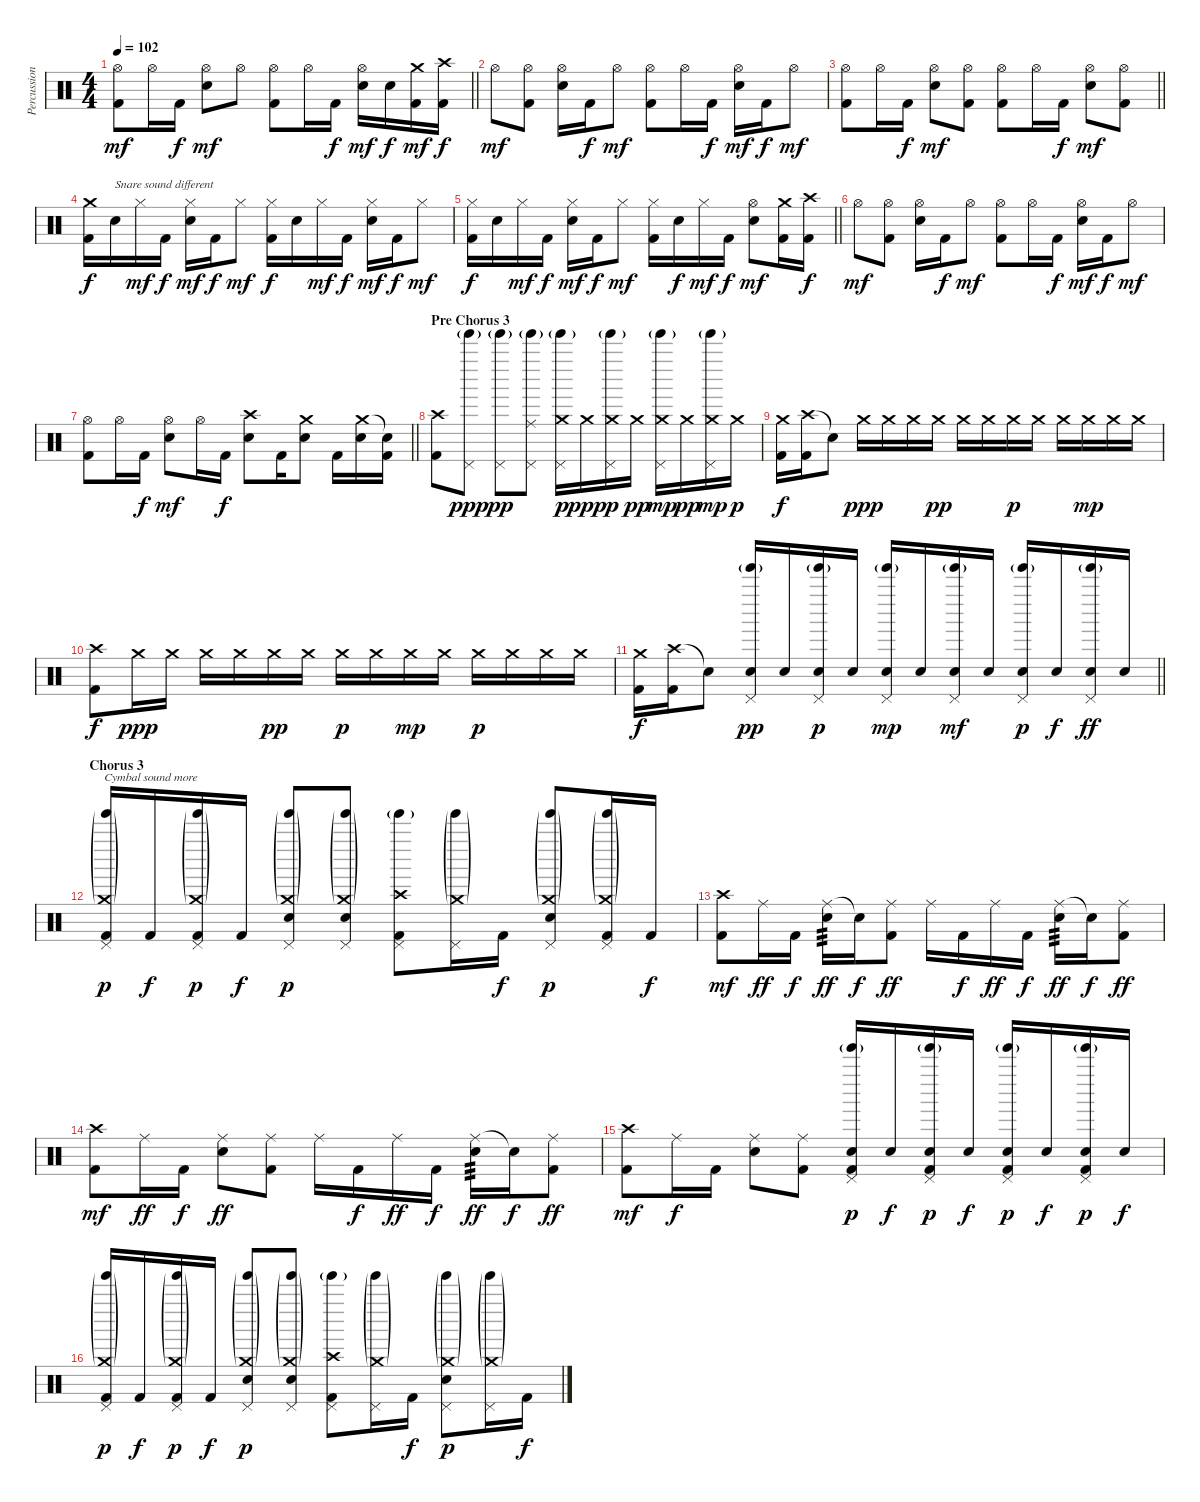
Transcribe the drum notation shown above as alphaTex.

\track ("Percussions" "Percussion") {instrument percussion}
\staff {score}
\articulation defaults
\ts (4 4)
\tempo 102
\clef neutral
\barLineRight lightlight
\ks c
("Hi-Hat (open)" "Kick (hit) 2").8{dy mf} "Hi-Hat (open)".16 "Kick (hit) 2".16{dy f} ("Hi-Hat (open)" "Electric Snare (hit)").8{dy mf} "Hi-Hat (open)".8 ("Hi-Hat (open)" "Kick (hit) 2").8 "Hi-Hat (open)".16 "Kick (hit) 2".16{dy f} ("Hi-Hat (open)" "Electric Snare (hit)").16{dy mf} "Electric Snare (hit)".16{dy f} ("Crash medium (hit)" "Kick (hit) 2").16{dy mf} ("Crash high (hit)" "Kick (hit) 2").16{dy f} |
"Hi-Hat (open)".8{dy mf} ("Hi-Hat (open)" "Kick (hit) 2").8 ("Hi-Hat (open)" "Electric Snare (hit)").16 "Kick (hit) 2".16{dy f} "Hi-Hat (open)".8{dy mf} ("Hi-Hat (open)" "Kick (hit) 2").8 "Hi-Hat (open)".16 "Kick (hit) 2".16{dy f} ("Hi-Hat (open)" "Electric Snare (hit)").16{dy mf} "Kick (hit) 2".16{dy f} "Hi-Hat (open)".8{dy mf} |
\barLineRight lightlight
("Hi-Hat (open)" "Kick (hit) 2").8 "Hi-Hat (open)".16 "Kick (hit) 2".16{dy f} ("Hi-Hat (open)" "Electric Snare (hit)").8{dy mf} ("Hi-Hat (open)" "Kick (hit) 2").8 ("Hi-Hat (open)" "Kick (hit) 2").8 "Hi-Hat (open)".16 "Kick (hit) 2".16{dy f} ("Hi-Hat (open)" "Electric Snare (hit)").8{dy mf} ("Hi-Hat (open)" "Kick (hit) 2").8 |
("Crash medium (hit)" "Kick (hit) 2").16{dy f} "Snare (hit) 2".16{txt "Snare sound different"} "Hi-Hat (closed)".16{dy mf} "Kick (hit) 2".16{dy f} ("Hi-Hat (closed)" "Snare (hit) 2").16{dy mf} "Kick (hit) 2".16{dy f} "Hi-Hat (closed)".8{dy mf} ("Hi-Hat (closed)" "Kick (hit) 2").16{dy f} "Snare (hit) 2".16 "Hi-Hat (closed)".16{dy mf} "Kick (hit) 2".16{dy f} ("Hi-Hat (closed)" "Snare (hit) 2").16{dy mf} "Kick (hit) 2".16{dy f} "Hi-Hat (closed)".8{dy mf} |
\barLineRight lightlight
("Hi-Hat (closed)" "Kick (hit) 2").16{dy f} "Snare (hit) 2".16 "Hi-Hat (closed)".16{dy mf} "Kick (hit) 2".16{dy f} ("Hi-Hat (closed)" "Snare (hit) 2").16{dy mf} "Kick (hit) 2".16{dy f} "Hi-Hat (closed)".8{dy mf} ("Hi-Hat (closed)" "Kick (hit) 2").16 "Snare (hit) 2".16{dy f} "Hi-Hat (closed)".16{dy mf} "Kick (hit) 2".16{dy f} ("Hi-Hat (open)" "Snare (hit) 2").8{dy mf} ("Crash medium (hit)" "Kick (hit) 2").16 ("Crash high (hit)" "Kick (hit) 2").16{dy f} |
"Hi-Hat (open)".8{dy mf} ("Hi-Hat (open)" "Kick (hit) 2").8 ("Hi-Hat (open)" "Electric Snare (hit)").16 "Kick (hit) 2".16{dy f} "Hi-Hat (open)".8{dy mf} ("Hi-Hat (open)" "Kick (hit) 2").8 "Hi-Hat (open)".16 "Kick (hit) 2".16{dy f} ("Hi-Hat (open)" "Electric Snare (hit)").16{dy mf} "Kick (hit) 2".16{dy f} "Hi-Hat (open)".8{dy mf} |
\barLineRight lightlight
("Hi-Hat (open)" "Kick (hit) 2").8 "Hi-Hat (open)".16 "Kick (hit) 2".16{dy f} ("Hi-Hat (open)" "Electric Snare (hit)").8{dy mf} "Hi-Hat (open)".16 "Kick (hit) 2".16{dy f} ("Crash high (hit)" "Electric Snare (hit)").8 "Kick (hit) 2".16 ("Crash medium (hit)" "Electric Snare (hit)").8 "Kick (hit) 2".16 ("Crash medium (hit)" "Electric Snare (hit)").16 ("Snare (hit)"{t} "Kick (hit) 2").16 |
\section ("" "Pre Chorus 3")
("Crash high (hit)" "Kick (hit) 2").8 ("Tinkle Bell (hit)"{g} "Pedal Hi-Hat (hit)").8{dy ppp} ("Tinkle Bell (hit)"{g} "Pedal Hi-Hat (hit)").8{dy pp} ("Ride (middle)" "Tinkle Bell (hit)"{g} "Pedal Hi-Hat (hit)").8 ("Crash medium (hit)" "Tinkle Bell (hit)"{g} "Pedal Hi-Hat (hit)").16{dy p} "Crash medium (hit)".16{dy ppp} ("Crash medium (hit)" "Tinkle Bell (hit)"{g} "Pedal Hi-Hat (hit)").16{dy p} "Crash medium (hit)".16{dy pp} ("Crash medium (hit)" "Tinkle Bell (hit)"{g} "Pedal Hi-Hat (hit)").16{dy mp} "Crash medium (hit)".16{dy pp} ("Crash medium (hit)" "Tinkle Bell (hit)"{g} "Pedal Hi-Hat (hit)").16{dy mp} "Crash medium (hit)".16{dy p} |
("Crash medium (hit)" "Kick (hit) 2").16{dy f} ("Crash high (hit)" "Kick (hit) 2").16 "Snare (hit)"{t}.8 "Crash medium (hit)".16{dy ppp} "Crash medium (hit)".16 "Crash medium (hit)".16 "Crash medium (hit)".16{dy pp} "Crash medium (hit)".16 "Crash medium (hit)".16 "Crash medium (hit)".16{dy p} "Crash medium (hit)".16 "Crash medium (hit)".16 "Crash medium (hit)".16{dy mp} "Crash medium (hit)".16 "Crash medium (hit)".16 |
("Crash high (hit)" "Kick (hit) 2").8{dy f} "Crash medium (hit)".16{dy ppp} "Crash medium (hit)".16 "Crash medium (hit)".16 "Crash medium (hit)".16 "Crash medium (hit)".16{dy pp} "Crash medium (hit)".16 "Crash medium (hit)".16{dy p} "Crash medium (hit)".16 "Crash medium (hit)".16{dy mp} "Crash medium (hit)".16 "Crash medium (hit)".16{dy p} "Crash medium (hit)".16 "Crash medium (hit)".16 "Crash medium (hit)".16 |
\barLineRight lightlight
("Crash medium (hit)" "Kick (hit) 2").16{dy f} ("Crash high (hit)" "Kick (hit) 2").16 "Snare (hit)"{t}.8 ("Tinkle Bell (hit)"{g} "Pedal Hi-Hat (hit)" "Snare (hit) 2").16{dy pp} "Snare (hit) 2".16 ("Tinkle Bell (hit)"{g} "Pedal Hi-Hat (hit)" "Snare (hit) 2").16{dy p} "Snare (hit) 2".16 ("Tinkle Bell (hit)"{g} "Pedal Hi-Hat (hit)" "Snare (hit) 2").16{dy mp} "Snare (hit) 2".16 ("Tinkle Bell (hit)"{g} "Pedal Hi-Hat (hit)" "Snare (hit) 2").16{dy mf} "Snare (hit) 2".16 ("Tinkle Bell (hit)"{g} "Pedal Hi-Hat (hit)" "Snare (hit) 2").16{dy p} "Snare (hit) 2".16{dy f} ("Tinkle Bell (hit)"{g} "Pedal Hi-Hat (hit)" "Snare (hit) 2").16{dy ff} "Snare (hit) 2".16 |
\section ("" "Chorus 3 ")
("Crash medium (hit)"{g} "Tinkle Bell (hit)"{g} "Pedal Hi-Hat (hit)" "Kick (hit) 2").16{txt "Cymbal sound more" dy p} "Kick (hit) 2".16{dy f} ("Crash medium (hit)"{g} "Tinkle Bell (hit)"{g} "Pedal Hi-Hat (hit)" "Kick (hit) 2").16{dy p} "Kick (hit) 2".16{dy f} ("Crash medium (hit)"{g} "Tinkle Bell (hit)"{g} "Pedal Hi-Hat (hit)" "Electric Snare (hit)").8{dy p} ("Crash medium (hit)"{g} "Tinkle Bell (hit)"{g} "Pedal Hi-Hat (hit)" "Electric Snare (hit)").8 ("Crash high (hit)" "Tinkle Bell (hit)"{g} "Pedal Hi-Hat (hit)" "Kick (hit) 2").8 ("Crash medium (hit)"{g} "Tinkle Bell (hit)"{g} "Pedal Hi-Hat (hit)").16 "Kick (hit) 2".16{dy f} ("Crash medium (hit)"{g} "Tinkle Bell (hit)"{g} "Pedal Hi-Hat (hit)" "Electric Snare (hit)").8{dy p} ("Crash medium (hit)"{g} "Tinkle Bell (hit)"{g} "Pedal Hi-Hat (hit)" "Kick (hit) 2").16 "Kick (hit) 2".16{dy f} |
("Crash high (hit)" "Kick (hit) 2").8{dy mf} "Ride (middle)".16{dy ff} "Kick (hit) 2".16{dy f} ("Ride (middle)" "Electric Snare (hit)").16{tp 3 dy ff} "Snare (hit)"{t}.16{dy f} ("Ride (middle)" "Kick (hit) 2").8{dy ff} "Ride (middle)".16 "Kick (hit) 2".16{dy f} "Ride (middle)".16{dy ff} "Kick (hit) 2".16{dy f} ("Ride (middle)" "Electric Snare (hit)").16{tp 3 dy ff} "Snare (hit)"{t}.16{dy f} ("Ride (middle)" "Kick (hit) 2").8{dy ff} |
("Crash high (hit)" "Kick (hit) 2").8{dy mf} "Ride (middle)".16{dy ff} "Kick (hit) 2".16{dy f} ("Ride (middle)" "Electric Snare (hit)").8{dy ff} ("Ride (middle)" "Kick (hit) 2").8 "Ride (middle)".16 "Kick (hit) 2".16{dy f} "Ride (middle)".16{dy ff} "Kick (hit) 2".16{dy f} ("Ride (middle)" "Electric Snare (hit)").16{tp 3 dy ff} "Snare (hit)"{t}.16{dy f} ("Ride (middle)" "Kick (hit) 2").8{dy ff} |
("Crash high (hit)" "Kick (hit) 2").8{dy mf} "Ride (middle)".16{dy f} "Kick (hit) 2".16 ("Ride (middle)" "Electric Snare (hit)").8 ("Ride (middle)" "Kick (hit) 2").8 ("Tinkle Bell (hit)"{g} "Pedal Hi-Hat (hit)" "Electric Snare (hit)" "Kick (hit) 2").16{dy p} "Electric Snare (hit)".16{dy f} ("Tinkle Bell (hit)"{g} "Pedal Hi-Hat (hit)" "Electric Snare (hit)" "Kick (hit) 2").16{dy p} "Electric Snare (hit)".16{dy f} ("Tinkle Bell (hit)"{g} "Pedal Hi-Hat (hit)" "Electric Snare (hit)" "Kick (hit) 2").16{dy p} "Electric Snare (hit)".16{dy f} ("Tinkle Bell (hit)"{g} "Pedal Hi-Hat (hit)" "Electric Snare (hit)" "Kick (hit) 2").16{dy p} "Electric Snare (hit)".16{dy f} |
("Crash medium (hit)"{g} "Tinkle Bell (hit)"{g} "Pedal Hi-Hat (hit)" "Kick (hit) 2").16{dy p} "Kick (hit) 2".16{dy f} ("Crash medium (hit)"{g} "Tinkle Bell (hit)"{g} "Pedal Hi-Hat (hit)" "Kick (hit) 2").16{dy p} "Kick (hit) 2".16{dy f} ("Crash medium (hit)"{g} "Tinkle Bell (hit)"{g} "Pedal Hi-Hat (hit)" "Electric Snare (hit)").8{dy p} ("Crash medium (hit)"{g} "Tinkle Bell (hit)"{g} "Pedal Hi-Hat (hit)" "Electric Snare (hit)").8 ("Crash high (hit)" "Tinkle Bell (hit)"{g} "Pedal Hi-Hat (hit)" "Kick (hit) 2").8 ("Crash medium (hit)"{g} "Tinkle Bell (hit)"{g} "Pedal Hi-Hat (hit)").16 "Kick (hit) 2".16{dy f} ("Crash medium (hit)"{g} "Tinkle Bell (hit)"{g} "Pedal Hi-Hat (hit)" "Electric Snare (hit)").8{dy p} ("Crash medium (hit)"{g} "Tinkle Bell (hit)"{g} "Pedal Hi-Hat (hit)").16 "Kick (hit) 2".16{dy f}
